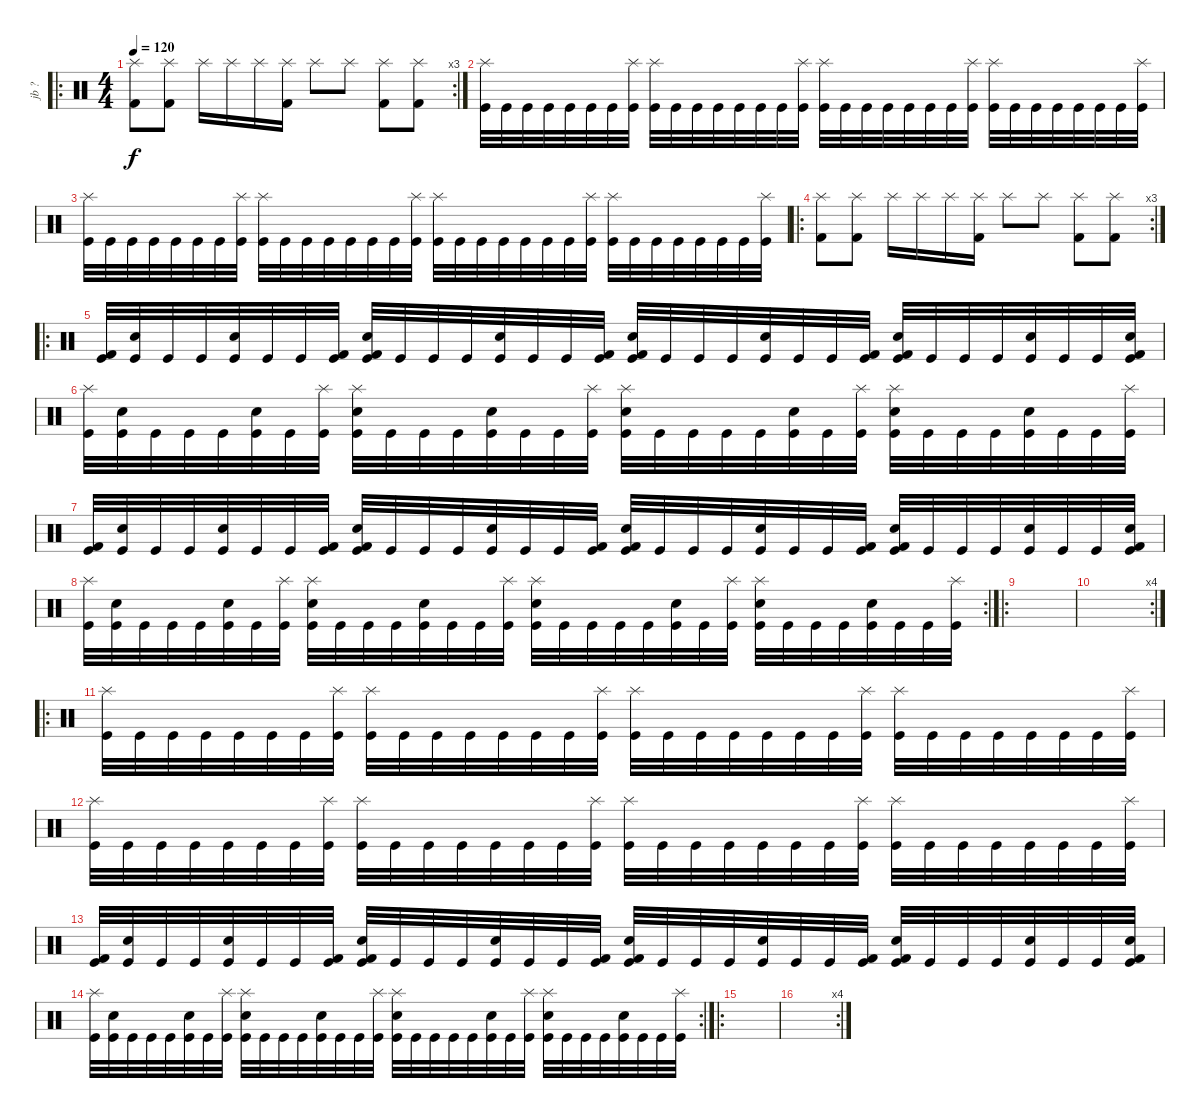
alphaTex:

\track ("jb ?" "jb ?") {instrument percussion}
\staff {score}
\articulation defaults
\ro
\rc 3
\ts (4 4)
\tempo 120
\clef neutral
\ks c
("Splash (hit)" "Kick (hit) 2").8{dy f} ("Splash (hit)" "Kick (hit) 2").8 "Splash (hit)".16 "Splash (hit)".16 "Splash (hit)".16 ("Splash (hit)" "Kick (hit) 2").16 "Splash (hit)".8 "Splash (hit)".8 ("Splash (hit)" "Kick (hit) 2").8 ("Splash (hit)" "Kick (hit) 2").8 |
("Splash (hit)" "Kick (hit)").32 "Kick (hit)".32 "Kick (hit)".32 "Kick (hit)".32 "Kick (hit)".32 "Kick (hit)".32 "Kick (hit)".32 ("Splash (hit)" "Kick (hit)").32 ("Splash (hit)" "Kick (hit)").32 "Kick (hit)".32 "Kick (hit)".32 "Kick (hit)".32 "Kick (hit)".32 "Kick (hit)".32 "Kick (hit)".32 ("Splash (hit)" "Kick (hit)").32 ("Splash (hit)" "Kick (hit)").32 "Kick (hit)".32 "Kick (hit)".32 "Kick (hit)".32 "Kick (hit)".32 "Kick (hit)".32 "Kick (hit)".32 ("Splash (hit)" "Kick (hit)").32 ("Splash (hit)" "Kick (hit)").32 "Kick (hit)".32 "Kick (hit)".32 "Kick (hit)".32 "Kick (hit)".32 "Kick (hit)".32 "Kick (hit)".32 ("Splash (hit)" "Kick (hit)").32 |
("Splash (hit)" "Kick (hit)").32 "Kick (hit)".32 "Kick (hit)".32 "Kick (hit)".32 "Kick (hit)".32 "Kick (hit)".32 "Kick (hit)".32 ("Splash (hit)" "Kick (hit)").32 ("Splash (hit)" "Kick (hit)").32 "Kick (hit)".32 "Kick (hit)".32 "Kick (hit)".32 "Kick (hit)".32 "Kick (hit)".32 "Kick (hit)".32 ("Splash (hit)" "Kick (hit)").32 ("Splash (hit)" "Kick (hit)").32 "Kick (hit)".32 "Kick (hit)".32 "Kick (hit)".32 "Kick (hit)".32 "Kick (hit)".32 "Kick (hit)".32 ("Splash (hit)" "Kick (hit)").32 ("Splash (hit)" "Kick (hit)").32 "Kick (hit)".32 "Kick (hit)".32 "Kick (hit)".32 "Kick (hit)".32 "Kick (hit)".32 "Kick (hit)".32 ("Splash (hit)" "Kick (hit)").32 |
\ro
\rc 3
("Splash (hit)" "Kick (hit) 2").8 ("Splash (hit)" "Kick (hit) 2").8 "Splash (hit)".16 "Splash (hit)".16 "Splash (hit)".16 ("Splash (hit)" "Kick (hit) 2").16 "Splash (hit)".8 "Splash (hit)".8 ("Splash (hit)" "Kick (hit) 2").8 ("Splash (hit)" "Kick (hit) 2").8 |
\ro
("Kick (hit) 2" "Kick (hit)").32 ("Electric Snare (hit)" "Kick (hit)").32 "Kick (hit)".32 "Kick (hit)".32 ("Electric Snare (hit)" "Kick (hit)").32 "Kick (hit)".32 "Kick (hit)".32 ("Kick (hit) 2" "Kick (hit)").32 ("Kick (hit) 2" "Electric Snare (hit)" "Kick (hit)").32 "Kick (hit)".32 "Kick (hit)".32 "Kick (hit)".32 ("Electric Snare (hit)" "Kick (hit)").32 "Kick (hit)".32 "Kick (hit)".32 ("Kick (hit) 2" "Kick (hit)").32 ("Kick (hit) 2" "Electric Snare (hit)" "Kick (hit)").32 "Kick (hit)".32 "Kick (hit)".32 "Kick (hit)".32 ("Electric Snare (hit)" "Kick (hit)").32 "Kick (hit)".32 "Kick (hit)".32 ("Kick (hit) 2" "Kick (hit)").32 ("Kick (hit) 2" "Electric Snare (hit)" "Kick (hit)").32 "Kick (hit)".32 "Kick (hit)".32 "Kick (hit)".32 ("Electric Snare (hit)" "Kick (hit)").32 "Kick (hit)".32 "Kick (hit)".32 ("Kick (hit) 2" "Electric Snare (hit)" "Kick (hit)").32 |
("Splash (hit)" "Kick (hit)").32 ("Electric Snare (hit)" "Kick (hit)").32 "Kick (hit)".32 "Kick (hit)".32 "Kick (hit)".32 ("Electric Snare (hit)" "Kick (hit)").32 "Kick (hit)".32 ("Splash (hit)" "Kick (hit)").32 ("Splash (hit)" "Electric Snare (hit)" "Kick (hit)").32 "Kick (hit)".32 "Kick (hit)".32 "Kick (hit)".32 ("Electric Snare (hit)" "Kick (hit)").32 "Kick (hit)".32 "Kick (hit)".32 ("Splash (hit)" "Kick (hit)").32 ("Splash (hit)" "Electric Snare (hit)" "Kick (hit)").32 "Kick (hit)".32 "Kick (hit)".32 "Kick (hit)".32 "Kick (hit)".32 ("Electric Snare (hit)" "Kick (hit)").32 "Kick (hit)".32 ("Splash (hit)" "Kick (hit)").32 ("Splash (hit)" "Electric Snare (hit)" "Kick (hit)").32 "Kick (hit)".32 "Kick (hit)".32 "Kick (hit)".32 ("Electric Snare (hit)" "Kick (hit)").32 "Kick (hit)".32 "Kick (hit)".32 ("Splash (hit)" "Kick (hit)").32 |
("Kick (hit) 2" "Kick (hit)").32 ("Electric Snare (hit)" "Kick (hit)").32 "Kick (hit)".32 "Kick (hit)".32 ("Electric Snare (hit)" "Kick (hit)").32 "Kick (hit)".32 "Kick (hit)".32 ("Kick (hit) 2" "Kick (hit)").32 ("Kick (hit) 2" "Electric Snare (hit)" "Kick (hit)").32 "Kick (hit)".32 "Kick (hit)".32 "Kick (hit)".32 ("Electric Snare (hit)" "Kick (hit)").32 "Kick (hit)".32 "Kick (hit)".32 ("Kick (hit) 2" "Kick (hit)").32 ("Kick (hit) 2" "Electric Snare (hit)" "Kick (hit)").32 "Kick (hit)".32 "Kick (hit)".32 "Kick (hit)".32 ("Electric Snare (hit)" "Kick (hit)").32 "Kick (hit)".32 "Kick (hit)".32 ("Kick (hit) 2" "Kick (hit)").32 ("Kick (hit) 2" "Electric Snare (hit)" "Kick (hit)").32 "Kick (hit)".32 "Kick (hit)".32 "Kick (hit)".32 ("Electric Snare (hit)" "Kick (hit)").32 "Kick (hit)".32 "Kick (hit)".32 ("Kick (hit) 2" "Electric Snare (hit)" "Kick (hit)").32 |
\rc 2
("Splash (hit)" "Kick (hit)").32 ("Electric Snare (hit)" "Kick (hit)").32 "Kick (hit)".32 "Kick (hit)".32 "Kick (hit)".32 ("Electric Snare (hit)" "Kick (hit)").32 "Kick (hit)".32 ("Splash (hit)" "Kick (hit)").32 ("Splash (hit)" "Electric Snare (hit)" "Kick (hit)").32 "Kick (hit)".32 "Kick (hit)".32 "Kick (hit)".32 ("Electric Snare (hit)" "Kick (hit)").32 "Kick (hit)".32 "Kick (hit)".32 ("Splash (hit)" "Kick (hit)").32 ("Splash (hit)" "Electric Snare (hit)" "Kick (hit)").32 "Kick (hit)".32 "Kick (hit)".32 "Kick (hit)".32 "Kick (hit)".32 ("Electric Snare (hit)" "Kick (hit)").32 "Kick (hit)".32 ("Splash (hit)" "Kick (hit)").32 ("Splash (hit)" "Electric Snare (hit)" "Kick (hit)").32 "Kick (hit)".32 "Kick (hit)".32 "Kick (hit)".32 ("Electric Snare (hit)" "Kick (hit)").32 "Kick (hit)".32 "Kick (hit)".32 ("Splash (hit)" "Kick (hit)").32 |
\ro
|
\rc 4
|
\ro
("Splash (hit)" "Kick (hit)").32 "Kick (hit)".32 "Kick (hit)".32 "Kick (hit)".32 "Kick (hit)".32 "Kick (hit)".32 "Kick (hit)".32 ("Splash (hit)" "Kick (hit)").32 ("Splash (hit)" "Kick (hit)").32 "Kick (hit)".32 "Kick (hit)".32 "Kick (hit)".32 "Kick (hit)".32 "Kick (hit)".32 "Kick (hit)".32 ("Splash (hit)" "Kick (hit)").32 ("Splash (hit)" "Kick (hit)").32 "Kick (hit)".32 "Kick (hit)".32 "Kick (hit)".32 "Kick (hit)".32 "Kick (hit)".32 "Kick (hit)".32 ("Splash (hit)" "Kick (hit)").32 ("Splash (hit)" "Kick (hit)").32 "Kick (hit)".32 "Kick (hit)".32 "Kick (hit)".32 "Kick (hit)".32 "Kick (hit)".32 "Kick (hit)".32 ("Splash (hit)" "Kick (hit)").32 |
("Splash (hit)" "Kick (hit)").32 "Kick (hit)".32 "Kick (hit)".32 "Kick (hit)".32 "Kick (hit)".32 "Kick (hit)".32 "Kick (hit)".32 ("Splash (hit)" "Kick (hit)").32 ("Splash (hit)" "Kick (hit)").32 "Kick (hit)".32 "Kick (hit)".32 "Kick (hit)".32 "Kick (hit)".32 "Kick (hit)".32 "Kick (hit)".32 ("Splash (hit)" "Kick (hit)").32 ("Splash (hit)" "Kick (hit)").32 "Kick (hit)".32 "Kick (hit)".32 "Kick (hit)".32 "Kick (hit)".32 "Kick (hit)".32 "Kick (hit)".32 ("Splash (hit)" "Kick (hit)").32 ("Splash (hit)" "Kick (hit)").32 "Kick (hit)".32 "Kick (hit)".32 "Kick (hit)".32 "Kick (hit)".32 "Kick (hit)".32 "Kick (hit)".32 ("Splash (hit)" "Kick (hit)").32 |
("Kick (hit) 2" "Kick (hit)").32 ("Electric Snare (hit)" "Kick (hit)").32 "Kick (hit)".32 "Kick (hit)".32 ("Electric Snare (hit)" "Kick (hit)").32 "Kick (hit)".32 "Kick (hit)".32 ("Kick (hit) 2" "Kick (hit)").32 ("Kick (hit) 2" "Electric Snare (hit)" "Kick (hit)").32 "Kick (hit)".32 "Kick (hit)".32 "Kick (hit)".32 ("Electric Snare (hit)" "Kick (hit)").32 "Kick (hit)".32 "Kick (hit)".32 ("Kick (hit) 2" "Kick (hit)").32 ("Kick (hit) 2" "Electric Snare (hit)" "Kick (hit)").32 "Kick (hit)".32 "Kick (hit)".32 "Kick (hit)".32 ("Electric Snare (hit)" "Kick (hit)").32 "Kick (hit)".32 "Kick (hit)".32 ("Kick (hit) 2" "Kick (hit)").32 ("Kick (hit) 2" "Electric Snare (hit)" "Kick (hit)").32 "Kick (hit)".32 "Kick (hit)".32 "Kick (hit)".32 ("Electric Snare (hit)" "Kick (hit)").32 "Kick (hit)".32 "Kick (hit)".32 ("Kick (hit) 2" "Electric Snare (hit)" "Kick (hit)").32 |
\rc 2
("Splash (hit)" "Kick (hit)").32 ("Electric Snare (hit)" "Kick (hit)").32 "Kick (hit)".32 "Kick (hit)".32 "Kick (hit)".32 ("Electric Snare (hit)" "Kick (hit)").32 "Kick (hit)".32 ("Splash (hit)" "Kick (hit)").32 ("Splash (hit)" "Electric Snare (hit)" "Kick (hit)").32 "Kick (hit)".32 "Kick (hit)".32 "Kick (hit)".32 ("Electric Snare (hit)" "Kick (hit)").32 "Kick (hit)".32 "Kick (hit)".32 ("Splash (hit)" "Kick (hit)").32 ("Splash (hit)" "Electric Snare (hit)" "Kick (hit)").32 "Kick (hit)".32 "Kick (hit)".32 "Kick (hit)".32 "Kick (hit)".32 ("Electric Snare (hit)" "Kick (hit)").32 "Kick (hit)".32 ("Splash (hit)" "Kick (hit)").32 ("Splash (hit)" "Electric Snare (hit)" "Kick (hit)").32 "Kick (hit)".32 "Kick (hit)".32 "Kick (hit)".32 ("Electric Snare (hit)" "Kick (hit)").32 "Kick (hit)".32 "Kick (hit)".32 ("Splash (hit)" "Kick (hit)").32 |
\ro
|
\rc 4
